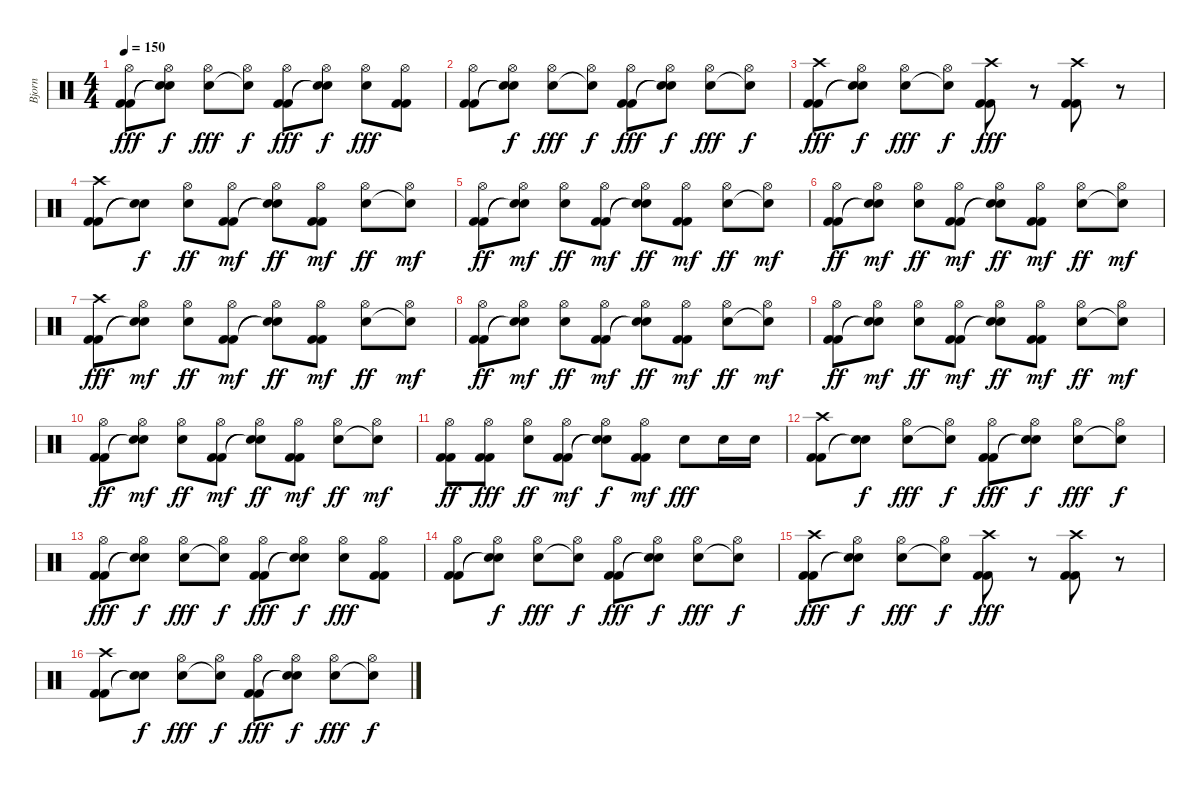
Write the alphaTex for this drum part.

\track ("Bjorn" "Bjorn") {instrument percussion}
\staff {score}
\articulation defaults
\ts (4 4)
\tempo 150
\clef neutral
\ks c
("Kick (hit) 2" "Kick (hit) 2" "Hi-Hat (open)").8{dy fff} ("Snare (hit)"{t} "Snare (hit)"{t} "Hi-Hat (open)").8{dy f} ("Snare (hit) 2" "Hi-Hat (open)").8{dy fff} ("Snare (hit)"{t} "Hi-Hat (open)").8{dy f} ("Kick (hit) 2" "Kick (hit) 2" "Hi-Hat (open)").8{dy fff} ("Snare (hit)"{t} "Snare (hit)"{t} "Hi-Hat (open)").8{dy f} ("Snare (hit) 2" "Hi-Hat (open)").8{dy fff} ("Kick (hit) 2" "Kick (hit) 2" "Hi-Hat (open)").8 |
("Kick (hit) 2" "Kick (hit) 2" "Hi-Hat (open)").8 ("Snare (hit)"{t} "Snare (hit)"{t} "Hi-Hat (open)").8{dy f} ("Snare (hit) 2" "Hi-Hat (open)").8{dy fff} ("Snare (hit)"{t} "Hi-Hat (open)").8{dy f} ("Kick (hit) 2" "Kick (hit) 2" "Hi-Hat (open)").8{dy fff} ("Snare (hit)"{t} "Snare (hit)"{t} "Hi-Hat (open)").8{dy f} ("Snare (hit) 2" "Hi-Hat (open)").8{dy fff} ("Snare (hit)"{t} "Hi-Hat (open)").8{dy f} |
("Kick (hit) 2" "Kick (hit) 2" "Crash high (hit)").8{dy fff} ("Snare (hit)"{t} "Snare (hit)"{t} "Hi-Hat (open)").8{dy f} ("Snare (hit) 2" "Hi-Hat (open)").8{dy fff} ("Snare (hit)"{t} "Hi-Hat (open)").8{dy f} ("Kick (hit) 2" "Kick (hit) 2" "Crash high (hit)").8{dy fff} r.8 ("Kick (hit) 2" "Kick (hit) 2" "Crash high (hit)").8 r.8 |
("Kick (hit) 2" "Kick (hit) 2" "Crash high (hit)").8 ("Snare (hit)"{t} "Snare (hit)"{t}).8{dy f} ("Snare (hit) 2" "Hi-Hat (open)").8{dy ff} ("Kick (hit) 2" "Kick (hit) 2" "Hi-Hat (open)").8{dy mf} ("Snare (hit)"{t} "Snare (hit)"{t} "Hi-Hat (open)").8{dy ff} ("Kick (hit) 2" "Kick (hit) 2" "Hi-Hat (open)").8{dy mf} ("Snare (hit) 2" "Hi-Hat (open)").8{dy ff} ("Snare (hit)"{t} "Hi-Hat (open)").8{dy mf} |
("Kick (hit) 2" "Kick (hit) 2" "Hi-Hat (open)").8{dy ff} ("Snare (hit)"{t} "Snare (hit)"{t} "Hi-Hat (open)").8{dy mf} ("Snare (hit) 2" "Hi-Hat (open)").8{dy ff} ("Kick (hit) 2" "Kick (hit) 2" "Hi-Hat (open)").8{dy mf} ("Snare (hit)"{t} "Snare (hit)"{t} "Hi-Hat (open)").8{dy ff} ("Kick (hit) 2" "Kick (hit) 2" "Hi-Hat (open)").8{dy mf} ("Snare (hit) 2" "Hi-Hat (open)").8{dy ff} ("Snare (hit)"{t} "Hi-Hat (open)").8{dy mf} |
("Kick (hit) 2" "Kick (hit) 2" "Hi-Hat (open)").8{dy ff} ("Snare (hit)"{t} "Snare (hit)"{t} "Hi-Hat (open)").8{dy mf} ("Snare (hit) 2" "Hi-Hat (open)").8{dy ff} ("Kick (hit) 2" "Kick (hit) 2" "Hi-Hat (open)").8{dy mf} ("Snare (hit)"{t} "Snare (hit)"{t} "Hi-Hat (open)").8{dy ff} ("Kick (hit) 2" "Kick (hit) 2" "Hi-Hat (open)").8{dy mf} ("Snare (hit) 2" "Hi-Hat (open)").8{dy ff} ("Snare (hit)"{t} "Hi-Hat (open)").8{dy mf} |
("Kick (hit) 2" "Kick (hit) 2" "Crash high (hit)").8{dy fff} ("Snare (hit)"{t} "Snare (hit)"{t} "Hi-Hat (open)").8{dy mf} ("Snare (hit) 2" "Hi-Hat (open)").8{dy ff} ("Kick (hit) 2" "Kick (hit) 2" "Hi-Hat (open)").8{dy mf} ("Snare (hit)"{t} "Snare (hit)"{t} "Hi-Hat (open)").8{dy ff} ("Kick (hit) 2" "Kick (hit) 2" "Hi-Hat (open)").8{dy mf} ("Snare (hit) 2" "Hi-Hat (open)").8{dy ff} ("Snare (hit)"{t} "Hi-Hat (open)").8{dy mf} |
("Kick (hit) 2" "Kick (hit) 2" "Hi-Hat (open)").8{dy ff} ("Snare (hit)"{t} "Snare (hit)"{t} "Hi-Hat (open)").8{dy mf} ("Snare (hit) 2" "Hi-Hat (open)").8{dy ff} ("Kick (hit) 2" "Kick (hit) 2" "Hi-Hat (open)").8{dy mf} ("Snare (hit)"{t} "Snare (hit)"{t} "Hi-Hat (open)").8{dy ff} ("Kick (hit) 2" "Kick (hit) 2" "Hi-Hat (open)").8{dy mf} ("Snare (hit) 2" "Hi-Hat (open)").8{dy ff} ("Snare (hit)"{t} "Hi-Hat (open)").8{dy mf} |
("Kick (hit) 2" "Kick (hit) 2" "Hi-Hat (open)").8{dy ff} ("Snare (hit)"{t} "Snare (hit)"{t} "Hi-Hat (open)").8{dy mf} ("Snare (hit) 2" "Hi-Hat (open)").8{dy ff} ("Kick (hit) 2" "Kick (hit) 2" "Hi-Hat (open)").8{dy mf} ("Snare (hit)"{t} "Snare (hit)"{t} "Hi-Hat (open)").8{dy ff} ("Kick (hit) 2" "Kick (hit) 2" "Hi-Hat (open)").8{dy mf} ("Snare (hit) 2" "Hi-Hat (open)").8{dy ff} ("Snare (hit)"{t} "Hi-Hat (open)").8{dy mf} |
("Kick (hit) 2" "Kick (hit) 2" "Hi-Hat (open)").8{dy ff} ("Snare (hit)"{t} "Snare (hit)"{t} "Hi-Hat (open)").8{dy mf} ("Snare (hit) 2" "Hi-Hat (open)").8{dy ff} ("Kick (hit) 2" "Kick (hit) 2" "Hi-Hat (open)").8{dy mf} ("Snare (hit)"{t} "Snare (hit)"{t} "Hi-Hat (open)").8{dy ff} ("Kick (hit) 2" "Kick (hit) 2" "Hi-Hat (open)").8{dy mf} ("Snare (hit) 2" "Hi-Hat (open)").8{dy ff} ("Snare (hit)"{t} "Hi-Hat (open)").8{dy mf} |
("Kick (hit) 2" "Kick (hit) 2" "Hi-Hat (open)").8{dy ff} ("Kick (hit) 2" "Kick (hit) 2" "Hi-Hat (open)").8{dy fff} ("Snare (hit) 2" "Hi-Hat (open)").8{dy ff} ("Kick (hit) 2" "Kick (hit) 2" "Hi-Hat (open)").8{dy mf} ("Snare (hit)"{t} "Snare (hit)"{t} "Hi-Hat (open)").8{dy f} ("Kick (hit) 2" "Kick (hit) 2" "Hi-Hat (open)").8{dy mf} "Snare (hit) 2".8{dy fff} "Snare (hit) 2".16 "Snare (hit) 2".16 |
("Kick (hit) 2" "Kick (hit) 2" "Crash high (hit)").8 ("Snare (hit)"{t} "Snare (hit)"{t}).8{dy f} ("Snare (hit) 2" "Hi-Hat (open)").8{dy fff} ("Snare (hit)"{t} "Hi-Hat (open)").8{dy f} ("Kick (hit) 2" "Kick (hit) 2" "Hi-Hat (open)").8{dy fff} ("Snare (hit)"{t} "Snare (hit)"{t} "Hi-Hat (open)").8{dy f} ("Snare (hit) 2" "Hi-Hat (open)").8{dy fff} ("Snare (hit)"{t} "Hi-Hat (open)").8{dy f} |
("Kick (hit) 2" "Kick (hit) 2" "Hi-Hat (open)").8{dy fff} ("Snare (hit)"{t} "Snare (hit)"{t} "Hi-Hat (open)").8{dy f} ("Snare (hit) 2" "Hi-Hat (open)").8{dy fff} ("Snare (hit)"{t} "Hi-Hat (open)").8{dy f} ("Kick (hit) 2" "Kick (hit) 2" "Hi-Hat (open)").8{dy fff} ("Snare (hit)"{t} "Snare (hit)"{t} "Hi-Hat (open)").8{dy f} ("Snare (hit) 2" "Hi-Hat (open)").8{dy fff} ("Kick (hit) 2" "Kick (hit) 2" "Hi-Hat (open)").8 |
("Kick (hit) 2" "Kick (hit) 2" "Hi-Hat (open)").8 ("Snare (hit)"{t} "Snare (hit)"{t} "Hi-Hat (open)").8{dy f} ("Snare (hit) 2" "Hi-Hat (open)").8{dy fff} ("Snare (hit)"{t} "Hi-Hat (open)").8{dy f} ("Kick (hit) 2" "Kick (hit) 2" "Hi-Hat (open)").8{dy fff} ("Snare (hit)"{t} "Snare (hit)"{t} "Hi-Hat (open)").8{dy f} ("Snare (hit) 2" "Hi-Hat (open)").8{dy fff} ("Snare (hit)"{t} "Hi-Hat (open)").8{dy f} |
("Kick (hit) 2" "Kick (hit) 2" "Crash high (hit)").8{dy fff} ("Snare (hit)"{t} "Snare (hit)"{t} "Hi-Hat (open)").8{dy f} ("Snare (hit) 2" "Hi-Hat (open)").8{dy fff} ("Snare (hit)"{t} "Hi-Hat (open)").8{dy f} ("Kick (hit) 2" "Kick (hit) 2" "Crash high (hit)").8{dy fff} r.8 ("Kick (hit) 2" "Kick (hit) 2" "Crash high (hit)").8 r.8 |
("Kick (hit) 2" "Kick (hit) 2" "Crash high (hit)").8 ("Snare (hit)"{t} "Snare (hit)"{t}).8{dy f} ("Snare (hit) 2" "Hi-Hat (open)").8{dy fff} ("Snare (hit)"{t} "Hi-Hat (open)").8{dy f} ("Kick (hit) 2" "Kick (hit) 2" "Hi-Hat (open)").8{dy fff} ("Snare (hit)"{t} "Snare (hit)"{t} "Hi-Hat (open)").8{dy f} ("Snare (hit) 2" "Hi-Hat (open)").8{dy fff} ("Snare (hit)"{t} "Hi-Hat (open)").8{dy f}
